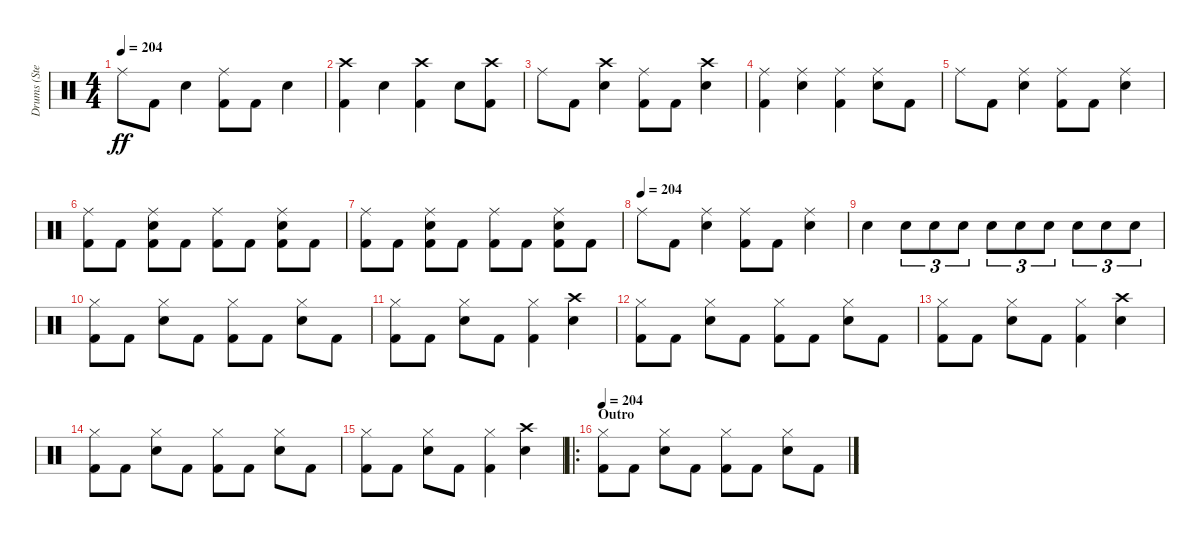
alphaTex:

\track ("Drums (Steven)" "Drums (Ste") {instrument percussion}
\staff {score}
\articulation defaults
\ts (4 4)
\tempo 204
\clef neutral
\ks c "Ride (middle)".8{dy ff} "Kick (hit) 2".8 "Snare (hit) 2".4
("Kick (hit) 2" "Ride (middle)").8 "Kick (hit) 2".8 "Snare (hit) 2".4 |
("Kick (hit) 2" "Crash high (hit)").4 "Snare (hit) 2".4 ("Kick (hit) 2" "Crash high (hit)").4 "Snare (hit) 2".8 ("Kick (hit) 2" "Crash high (hit)").8 |
"Ride (middle)".8 "Kick (hit) 2".8 ("Snare (hit) 2" "Crash high (hit)").4 ("Kick (hit) 2" "Ride (middle)").8 "Kick (hit) 2".8 ("Snare (hit) 2" "Crash high (hit)").4 |
("Kick (hit) 2" "Ride (middle)").4 ("Snare (hit) 2" "Ride (middle)").4 ("Kick (hit) 2" "Ride (middle)").4 ("Snare (hit) 2" "Ride (middle)").8 "Kick (hit) 2".8 |
"Ride (middle)".8 "Kick (hit) 2".8 ("Snare (hit) 2" "Ride (middle)").4 ("Kick (hit) 2" "Ride (middle)").8 "Kick (hit) 2".8 ("Snare (hit) 2" "Ride (middle)").4 |
("Kick (hit) 2" "Ride (middle)").8 "Kick (hit) 2".8 ("Kick (hit) 2" "Snare (hit) 2" "Ride (middle)").8 "Kick (hit) 2".8 ("Kick (hit) 2" "Ride (middle)").8 "Kick (hit) 2".8 ("Kick (hit) 2" "Snare (hit) 2" "Ride (middle)").8 "Kick (hit) 2".8 |
("Kick (hit) 2" "Ride (middle)").8 "Kick (hit) 2".8 ("Kick (hit) 2" "Snare (hit) 2" "Ride (middle)").8 "Kick (hit) 2".8 ("Kick (hit) 2" "Ride (middle)").8 "Kick (hit) 2".8 ("Kick (hit) 2" "Snare (hit) 2" "Ride (middle)").8 "Kick (hit) 2".8 |
\tempo (204)
"Ride (middle)".8 "Kick (hit) 2".8 ("Snare (hit) 2" "Ride (middle)").4 ("Kick (hit) 2" "Ride (middle)").8 "Kick (hit) 2".8 ("Snare (hit) 2" "Ride (middle)").4 |
"Electric Snare (hit)".4 "Snare (hit) 2".8{tu (3 2)} "Snare (hit) 2".8{tu (3 2)} "Snare (hit) 2".8{tu (3 2)} "Snare (hit) 2".8{tu (3 2)} "Snare (hit) 2".8{tu (3 2)} "Snare (hit) 2".8{tu (3 2)} "Snare (hit) 2".8{tu (3 2)} "Snare (hit) 2".8{tu (3 2)} "Snare (hit) 2".8{tu (3 2)} |
("Kick (hit) 2" "Hi-Hat (closed)").8 "Kick (hit) 2".8 ("Snare (hit) 2" "Hi-Hat (closed)").8 "Kick (hit) 2".8 ("Kick (hit) 2" "Hi-Hat (closed)").8 "Kick (hit) 2".8 ("Snare (hit) 2" "Hi-Hat (closed)").8 "Kick (hit) 2".8 |
("Kick (hit) 2" "Hi-Hat (closed)").8 "Kick (hit) 2".8 ("Snare (hit) 2" "Hi-Hat (closed)").8 "Kick (hit) 2".8 ("Kick (hit) 2" "Hi-Hat (closed)").4 ("Snare (hit) 2" "Crash high (hit)").4 |
("Kick (hit) 2" "Hi-Hat (closed)").8 "Kick (hit) 2".8 ("Snare (hit) 2" "Hi-Hat (closed)").8 "Kick (hit) 2".8 ("Kick (hit) 2" "Hi-Hat (closed)").8 "Kick (hit) 2".8 ("Snare (hit) 2" "Hi-Hat (closed)").8 "Kick (hit) 2".8 |
("Kick (hit) 2" "Hi-Hat (closed)").8 "Kick (hit) 2".8 ("Snare (hit) 2" "Hi-Hat (closed)").8 "Kick (hit) 2".8 ("Kick (hit) 2" "Hi-Hat (closed)").4 ("Snare (hit) 2" "Crash high (hit)").4 |
("Kick (hit) 2" "Hi-Hat (closed)").8 "Kick (hit) 2".8 ("Snare (hit) 2" "Hi-Hat (closed)").8 "Kick (hit) 2".8 ("Kick (hit) 2" "Hi-Hat (closed)").8 "Kick (hit) 2".8 ("Snare (hit) 2" "Hi-Hat (closed)").8 "Kick (hit) 2".8 |
("Kick (hit) 2" "Hi-Hat (closed)").8 "Kick (hit) 2".8 ("Snare (hit) 2" "Hi-Hat (closed)").8 "Kick (hit) 2".8 ("Kick (hit) 2" "Hi-Hat (closed)").4 ("Snare (hit) 2" "Crash high (hit)").4 |
\ro
\section ("" "Outro")
\tempo 204
("Kick (hit) 2" "Hi-Hat (closed)").8 "Kick (hit) 2".8 ("Snare (hit) 2" "Hi-Hat (closed)").8 "Kick (hit) 2".8 ("Kick (hit) 2" "Hi-Hat (closed)").8 "Kick (hit) 2".8 ("Snare (hit) 2" "Hi-Hat (closed)").8 "Kick (hit) 2".8
